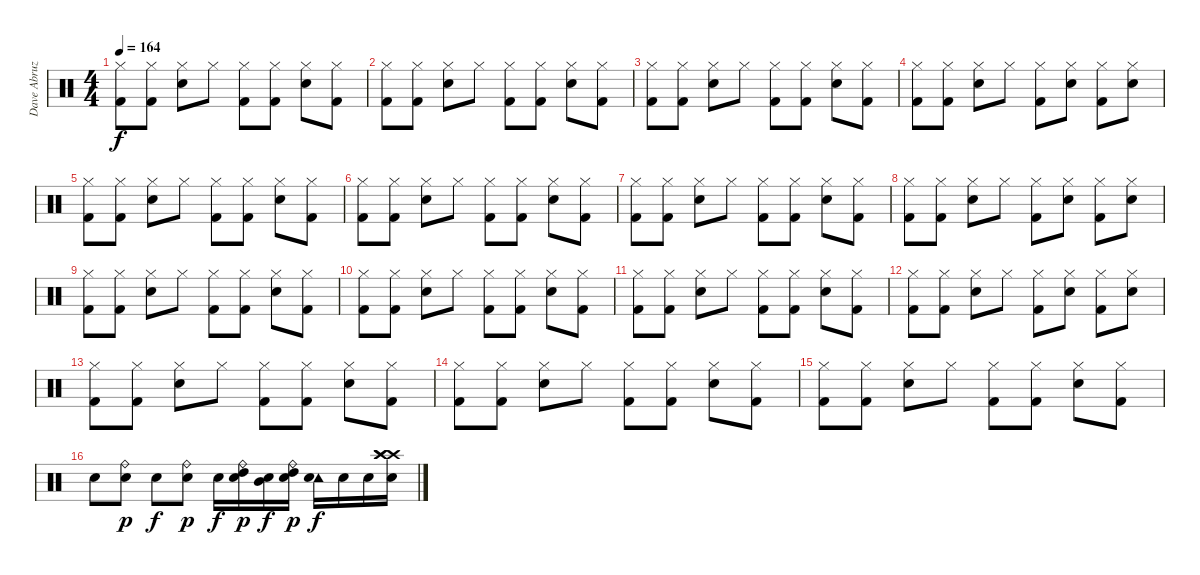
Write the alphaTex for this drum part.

\track ("Dave Abruzzese" "Dave Abruz") {instrument percussion}
\staff {score}
\articulation defaults
\ts (4 4)
\tempo 164
\clef neutral
\ks c
("Kick (hit) 2" "Hi-Hat (closed)").8{dy f} ("Kick (hit) 2" "Hi-Hat (closed)").8 ("Snare (hit) 2" "Hi-Hat (closed)").8 "Hi-Hat (closed)".8 ("Kick (hit) 2" "Hi-Hat (closed)").8 ("Kick (hit) 2" "Hi-Hat (closed)").8 ("Snare (hit) 2" "Hi-Hat (closed)").8 ("Kick (hit) 2" "Hi-Hat (closed)").8 |
("Kick (hit) 2" "Hi-Hat (closed)").8 ("Kick (hit) 2" "Hi-Hat (closed)").8 ("Snare (hit) 2" "Hi-Hat (closed)").8 "Hi-Hat (closed)".8 ("Kick (hit) 2" "Hi-Hat (closed)").8 ("Kick (hit) 2" "Hi-Hat (closed)").8 ("Snare (hit) 2" "Hi-Hat (closed)").8 ("Kick (hit) 2" "Hi-Hat (closed)").8 |
("Kick (hit) 2" "Hi-Hat (closed)").8 ("Kick (hit) 2" "Hi-Hat (closed)").8 ("Snare (hit) 2" "Hi-Hat (closed)").8 "Hi-Hat (closed)".8 ("Kick (hit) 2" "Hi-Hat (closed)").8 ("Kick (hit) 2" "Hi-Hat (closed)").8 ("Snare (hit) 2" "Hi-Hat (closed)").8 ("Kick (hit) 2" "Hi-Hat (closed)").8 |
("Kick (hit) 2" "Hi-Hat (closed)").8 ("Kick (hit) 2" "Hi-Hat (closed)").8 ("Snare (hit) 2" "Hi-Hat (closed)").8 "Hi-Hat (closed)".8 ("Kick (hit) 2" "Hi-Hat (closed)").8 ("Snare (hit) 2" "Hi-Hat (closed)").8 ("Kick (hit) 2" "Hi-Hat (closed)").8 ("Snare (hit) 2" "Hi-Hat (closed)").8 |
("Kick (hit) 2" "Hi-Hat (closed)").8 ("Kick (hit) 2" "Hi-Hat (closed)").8 ("Snare (hit) 2" "Hi-Hat (closed)").8 "Hi-Hat (closed)".8 ("Kick (hit) 2" "Hi-Hat (closed)").8 ("Kick (hit) 2" "Hi-Hat (closed)").8 ("Snare (hit) 2" "Hi-Hat (closed)").8 ("Kick (hit) 2" "Hi-Hat (closed)").8 |
("Kick (hit) 2" "Hi-Hat (closed)").8 ("Kick (hit) 2" "Hi-Hat (closed)").8 ("Snare (hit) 2" "Hi-Hat (closed)").8 "Hi-Hat (closed)".8 ("Kick (hit) 2" "Hi-Hat (closed)").8 ("Kick (hit) 2" "Hi-Hat (closed)").8 ("Snare (hit) 2" "Hi-Hat (closed)").8 ("Kick (hit) 2" "Hi-Hat (closed)").8 |
("Kick (hit) 2" "Hi-Hat (closed)").8 ("Kick (hit) 2" "Hi-Hat (closed)").8 ("Snare (hit) 2" "Hi-Hat (closed)").8 "Hi-Hat (closed)".8 ("Kick (hit) 2" "Hi-Hat (closed)").8 ("Kick (hit) 2" "Hi-Hat (closed)").8 ("Snare (hit) 2" "Hi-Hat (closed)").8 ("Kick (hit) 2" "Hi-Hat (closed)").8 |
("Kick (hit) 2" "Hi-Hat (closed)").8 ("Kick (hit) 2" "Hi-Hat (closed)").8 ("Snare (hit) 2" "Hi-Hat (closed)").8 "Hi-Hat (closed)".8 ("Kick (hit) 2" "Hi-Hat (closed)").8 ("Snare (hit) 2" "Hi-Hat (closed)").8 ("Kick (hit) 2" "Hi-Hat (closed)").8 ("Snare (hit) 2" "Hi-Hat (closed)").8 |
("Kick (hit) 2" "Hi-Hat (closed)").8 ("Kick (hit) 2" "Hi-Hat (closed)").8 ("Snare (hit) 2" "Hi-Hat (closed)").8 "Hi-Hat (closed)".8 ("Kick (hit) 2" "Hi-Hat (closed)").8 ("Kick (hit) 2" "Hi-Hat (closed)").8 ("Snare (hit) 2" "Hi-Hat (closed)").8 ("Kick (hit) 2" "Hi-Hat (closed)").8 |
("Kick (hit) 2" "Hi-Hat (closed)").8 ("Kick (hit) 2" "Hi-Hat (closed)").8 ("Snare (hit) 2" "Hi-Hat (closed)").8 "Hi-Hat (closed)".8 ("Kick (hit) 2" "Hi-Hat (closed)").8 ("Kick (hit) 2" "Hi-Hat (closed)").8 ("Snare (hit) 2" "Hi-Hat (closed)").8 ("Kick (hit) 2" "Hi-Hat (closed)").8 |
("Kick (hit) 2" "Hi-Hat (closed)").8 ("Kick (hit) 2" "Hi-Hat (closed)").8 ("Snare (hit) 2" "Hi-Hat (closed)").8 "Hi-Hat (closed)".8 ("Kick (hit) 2" "Hi-Hat (closed)").8 ("Kick (hit) 2" "Hi-Hat (closed)").8 ("Snare (hit) 2" "Hi-Hat (closed)").8 ("Kick (hit) 2" "Hi-Hat (closed)").8 |
("Kick (hit) 2" "Hi-Hat (closed)").8 ("Kick (hit) 2" "Hi-Hat (closed)").8 ("Snare (hit) 2" "Hi-Hat (closed)").8 "Hi-Hat (closed)".8 ("Kick (hit) 2" "Hi-Hat (closed)").8 ("Snare (hit) 2" "Hi-Hat (closed)").8 ("Kick (hit) 2" "Hi-Hat (closed)").8 ("Snare (hit) 2" "Hi-Hat (closed)").8 |
("Kick (hit) 2" "Hi-Hat (closed)").8 ("Kick (hit) 2" "Hi-Hat (closed)").8 ("Snare (hit) 2" "Hi-Hat (closed)").8 "Hi-Hat (closed)".8 ("Kick (hit) 2" "Hi-Hat (closed)").8 ("Kick (hit) 2" "Hi-Hat (closed)").8 ("Snare (hit) 2" "Hi-Hat (closed)").8 ("Kick (hit) 2" "Hi-Hat (closed)").8 |
("Kick (hit) 2" "Hi-Hat (closed)").8 ("Kick (hit) 2" "Hi-Hat (closed)").8 ("Snare (hit) 2" "Hi-Hat (closed)").8 "Hi-Hat (closed)".8 ("Kick (hit) 2" "Hi-Hat (closed)").8 ("Kick (hit) 2" "Hi-Hat (closed)").8 ("Snare (hit) 2" "Hi-Hat (closed)").8 ("Kick (hit) 2" "Hi-Hat (closed)").8 |
("Kick (hit) 2" "Hi-Hat (closed)").8 ("Kick (hit) 2" "Hi-Hat (closed)").8 ("Snare (hit) 2" "Hi-Hat (closed)").8 "Hi-Hat (closed)".8 ("Kick (hit) 2" "Hi-Hat (closed)").8 ("Kick (hit) 2" "Hi-Hat (closed)").8 ("Snare (hit) 2" "Hi-Hat (closed)").8 ("Kick (hit) 2" "Hi-Hat (closed)").8 |
"Snare (hit) 2".8 ("Snare (hit) 2" "Ride (bell)").8{dy p} "Snare (hit) 2".8{dy f} ("Snare (hit) 2" "Ride (bell)").8{dy p} "Snare (hit) 2".16{dy f} ("High Tom (hit)" "Snare (hit) 2" "Ride (bell)").16{dy p} ("Mid Tom (hit)" "Snare (hit) 2").16{dy f} ("High Tom (hit)" "Snare (hit) 2" "Ride (bell)").16{dy p} ("Tambourine (hit)" "Snare (hit) 2").16{dy f} "Snare (hit) 2".16 "Snare (hit) 2".16 ("Crash high (hit)" "Snare (hit) 2" "Crash high (hit)" "Crash high (hit)").16
